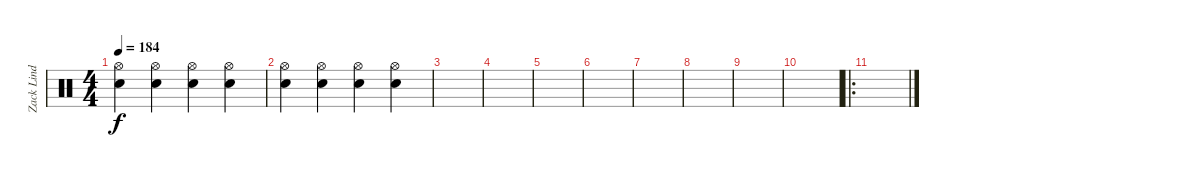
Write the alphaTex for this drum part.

\track ("Zack Lind" "Zack Lind") {instrument percussion}
\staff {score}
\articulation defaults
\ts (4 4)
\tempo 184
\clef neutral
\ks c
("Hi-Hat (open)" "Snare (hit) 2").4{dy f} ("Hi-Hat (open)" "Snare (hit) 2").4 ("Hi-Hat (open)" "Snare (hit) 2").4 ("Hi-Hat (open)" "Snare (hit) 2").4 |
("Hi-Hat (open)" "Snare (hit) 2").4 ("Hi-Hat (open)" "Snare (hit) 2").4 ("Hi-Hat (open)" "Snare (hit) 2").4 ("Hi-Hat (open)" "Snare (hit) 2").4 |
|
|
|
|
|
|
|
|
\ro
